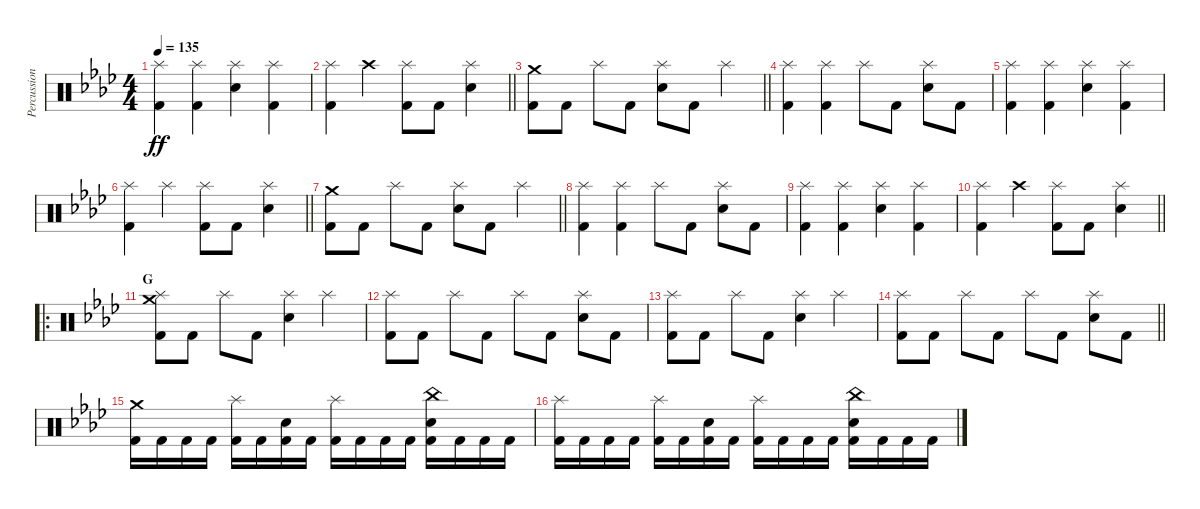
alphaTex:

\track ("Percussion" "Percussion") {instrument percussion}
\staff {score}
\articulation defaults
\ts (4 4)
\tempo 135
\clef neutral
\ks fminor
("Splash (hit)" "Kick (hit) 2").4{dy ff} ("Splash (hit)" "Kick (hit) 2").4 ("Splash (hit)" "Electric Snare (hit)").4 ("Splash (hit)" "Kick (hit) 2").4 |
\barLineRight lightlight
("Splash (hit)" "Kick (hit) 2").4 "Crash high (hit)".4 ("Splash (hit)" "Kick (hit) 2").8 "Kick (hit) 2".8 ("Splash (hit)" "Electric Snare (hit)").4 |
\barLineRight lightlight
("Crash medium (hit)" "Kick (hit) 2").8 "Kick (hit) 2".8 "Splash (hit)".8 "Kick (hit) 2".8 ("Splash (hit)" "Electric Snare (hit)").8 "Kick (hit) 2".8 "Splash (hit)".4 |
("Splash (hit)" "Kick (hit) 2").4 ("Splash (hit)" "Kick (hit) 2").4 "Splash (hit)".8 "Kick (hit) 2".8 ("Splash (hit)" "Electric Snare (hit)").8 "Kick (hit) 2".8 |
("Splash (hit)" "Kick (hit) 2").4 ("Splash (hit)" "Kick (hit) 2").4 ("Splash (hit)" "Electric Snare (hit)").4 ("Splash (hit)" "Kick (hit) 2").4 |
\barLineRight lightlight
("Splash (hit)" "Kick (hit) 2").4 "Splash (hit)".4 ("Splash (hit)" "Kick (hit) 2").8 "Kick (hit) 2".8 ("Splash (hit)" "Electric Snare (hit)").4 |
\barLineRight lightlight
("Crash medium (hit)" "Kick (hit) 2").8 "Kick (hit) 2".8 "Splash (hit)".8 "Kick (hit) 2".8 ("Splash (hit)" "Electric Snare (hit)").8 "Kick (hit) 2".8 "Splash (hit)".4 |
("Splash (hit)" "Kick (hit) 2").4 ("Splash (hit)" "Kick (hit) 2").4 "Splash (hit)".8 "Kick (hit) 2".8 ("Splash (hit)" "Electric Snare (hit)").8 "Kick (hit) 2".8 |
("Splash (hit)" "Kick (hit) 2").4 ("Splash (hit)" "Kick (hit) 2").4 ("Splash (hit)" "Electric Snare (hit)").4 ("Splash (hit)" "Kick (hit) 2").4 |
\barLineRight lightlight
("Splash (hit)" "Kick (hit) 2").4 "Crash high (hit)".4 ("Splash (hit)" "Kick (hit) 2").8 "Kick (hit) 2".8 ("Splash (hit)" "Electric Snare (hit)").4 |
\ro
\section ("" "G")
("Crash medium (hit)" "Splash (hit)" "Kick (hit) 2").8 "Kick (hit) 2".8 "Splash (hit)".8 "Kick (hit) 2".8 ("Splash (hit)" "Electric Snare (hit)").4 "Splash (hit)".4 |
("Splash (hit)" "Kick (hit) 2").8 "Kick (hit) 2".8 "Splash (hit)".8 "Kick (hit) 2".8 "Splash (hit)".8 "Kick (hit) 2".8 ("Splash (hit)" "Electric Snare (hit)").8 "Kick (hit) 2".8 |
("Splash (hit)" "Kick (hit) 2").8 "Kick (hit) 2".8 "Splash (hit)".8 "Kick (hit) 2".8 ("Splash (hit)" "Electric Snare (hit)").4 "Splash (hit)".4 |
\barLineRight lightlight
("Splash (hit)" "Kick (hit) 2").8 "Kick (hit) 2".8 "Splash (hit)".8 "Kick (hit) 2".8 "Splash (hit)".8 "Kick (hit) 2".8 ("Splash (hit)" "Electric Snare (hit)").8 "Kick (hit) 2".8 |
\section ("" "")
("Crash medium (hit)" "Kick (hit) 2").16 "Kick (hit) 2".16 "Kick (hit) 2".16 "Kick (hit) 2".16 ("Splash (hit)" "Kick (hit) 2").16 "Kick (hit) 2".16 ("Electric Snare (hit)" "Kick (hit) 2").16 "Kick (hit) 2".16 ("Splash (hit)" "Kick (hit) 2").16 "Kick (hit) 2".16 "Kick (hit) 2".16 "Kick (hit) 2".16 ("China (hit)" "Electric Snare (hit)" "Kick (hit) 2").16 "Kick (hit) 2".16 "Kick (hit) 2".16 "Kick (hit) 2".16 |
("Splash (hit)" "Kick (hit) 2").16 "Kick (hit) 2".16 "Kick (hit) 2".16 "Kick (hit) 2".16 ("Splash (hit)" "Kick (hit) 2").16 "Kick (hit) 2".16 ("Electric Snare (hit)" "Kick (hit) 2").16 "Kick (hit) 2".16 ("Splash (hit)" "Kick (hit) 2").16 "Kick (hit) 2".16 "Kick (hit) 2".16 "Kick (hit) 2".16 ("China (hit)" "Electric Snare (hit)" "Kick (hit) 2").16 "Kick (hit) 2".16 "Kick (hit) 2".16 "Kick (hit) 2".16
